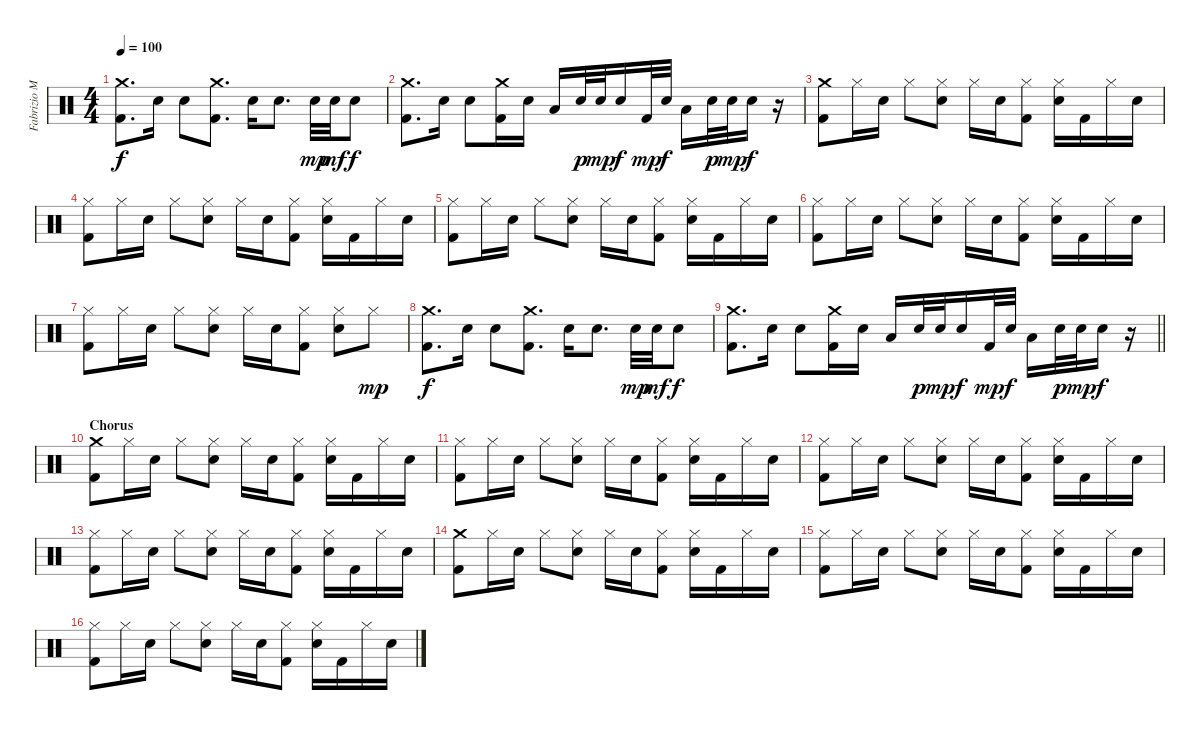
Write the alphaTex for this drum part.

\track ("Fabrizio Moretti" "Fabrizio M") {instrument percussion}
\staff {score}
\articulation defaults
\ts (4 4)
\tempo 100
\clef neutral
\ks c
("Crash medium (hit)" "Kick (hit) 2").8{d dy f} "Snare (hit) 2".16 "Snare (hit) 2".8 ("Crash medium (hit)" "Kick (hit) 2").8{d} "Snare (hit) 2".16 "Snare (hit) 2".8{d} "Snare (hit) 2".32{dy mp} "Snare (hit) 2".32{dy mf} "Snare (hit) 2".8{dy f} |
("Crash medium (hit)" "Kick (hit) 2").8{d} "Snare (hit) 2".16 "Snare (hit) 2".8 ("Crash medium (hit)" "Kick (hit) 2").16 "Snare (hit) 2".16 "Low Tom (hit)".16 "Snare (hit) 2".32{dy p} "Snare (hit) 2".32{dy mp} "Snare (hit) 2".16{dy f} "Kick (hit) 2".32{dy mp} "Snare (hit) 2".32{dy f} "Low Tom (hit)".16 "Snare (hit) 2".32{dy p} "Snare (hit) 2".32{dy mp} "Snare (hit) 2".16{dy f} r.16 |
("Crash medium (hit)" "Kick (hit) 2").8 "Hi-Hat (closed)".16 "Snare (hit) 2".16 "Hi-Hat (closed)".8 ("Hi-Hat (closed)" "Snare (hit) 2").8 "Hi-Hat (closed)".16 "Snare (hit) 2".16 ("Hi-Hat (closed)" "Kick (hit) 2").8 ("Hi-Hat (closed)" "Snare (hit) 2").16 "Kick (hit) 2".16 "Hi-Hat (closed)".16 "Snare (hit) 2".16 |
("Hi-Hat (closed)" "Kick (hit) 2").8 "Hi-Hat (closed)".16 "Snare (hit) 2".16 "Hi-Hat (closed)".8 ("Hi-Hat (closed)" "Snare (hit) 2").8 "Hi-Hat (closed)".16 "Snare (hit) 2".16 ("Hi-Hat (closed)" "Kick (hit) 2").8 ("Hi-Hat (closed)" "Snare (hit) 2").16 "Kick (hit) 2".16 "Hi-Hat (closed)".16 "Snare (hit) 2".16 |
("Hi-Hat (closed)" "Kick (hit) 2").8 "Hi-Hat (closed)".16 "Snare (hit) 2".16 "Hi-Hat (closed)".8 ("Hi-Hat (closed)" "Snare (hit) 2").8 "Hi-Hat (closed)".16 "Snare (hit) 2".16 ("Hi-Hat (closed)" "Kick (hit) 2").8 ("Hi-Hat (closed)" "Snare (hit) 2").16 "Kick (hit) 2".16 "Hi-Hat (closed)".16 "Snare (hit) 2".16 |
("Hi-Hat (closed)" "Kick (hit) 2").8 "Hi-Hat (closed)".16 "Snare (hit) 2".16 "Hi-Hat (closed)".8 ("Hi-Hat (closed)" "Snare (hit) 2").8 "Hi-Hat (closed)".16 "Snare (hit) 2".16 ("Hi-Hat (closed)" "Kick (hit) 2").8 ("Hi-Hat (closed)" "Snare (hit) 2").16 "Kick (hit) 2".16 "Hi-Hat (closed)".16 "Snare (hit) 2".16 |
("Hi-Hat (closed)" "Kick (hit) 2").8 "Hi-Hat (closed)".16 "Snare (hit) 2".16 "Hi-Hat (closed)".8 ("Hi-Hat (closed)" "Snare (hit) 2").8 "Hi-Hat (closed)".16 "Snare (hit) 2".16 ("Hi-Hat (closed)" "Kick (hit) 2").8 ("Hi-Hat (closed)" "Snare (hit) 2").8 "Hi-Hat (closed)".8{dy mp} |
("Crash medium (hit)" "Kick (hit) 2").8{d dy f} "Snare (hit) 2".16 "Snare (hit) 2".8 ("Crash medium (hit)" "Kick (hit) 2").8{d} "Snare (hit) 2".16 "Snare (hit) 2".8{d} "Snare (hit) 2".32{dy mp} "Snare (hit) 2".32{dy mf} "Snare (hit) 2".8{dy f} |
\barLineRight lightlight
("Crash medium (hit)" "Kick (hit) 2").8{d} "Snare (hit) 2".16 "Snare (hit) 2".8 ("Crash medium (hit)" "Kick (hit) 2").16 "Snare (hit) 2".16 "Low Tom (hit)".16 "Snare (hit) 2".32{dy p} "Snare (hit) 2".32{dy mp} "Snare (hit) 2".16{dy f} "Kick (hit) 2".32{dy mp} "Snare (hit) 2".32{dy f} "Low Tom (hit)".16 "Snare (hit) 2".32{dy p} "Snare (hit) 2".32{dy mp} "Snare (hit) 2".16{dy f} r.16 |
\section ("" "Chorus")
("Crash medium (hit)" "Kick (hit) 2").8 "Hi-Hat (closed)".16 "Snare (hit) 2".16 "Hi-Hat (closed)".8 ("Hi-Hat (closed)" "Snare (hit) 2").8 "Hi-Hat (closed)".16 "Snare (hit) 2".16 ("Hi-Hat (closed)" "Kick (hit) 2").8 ("Hi-Hat (closed)" "Snare (hit) 2").16 "Kick (hit) 2".16 "Hi-Hat (closed)".16 "Snare (hit) 2".16 |
("Hi-Hat (closed)" "Kick (hit) 2").8 "Hi-Hat (closed)".16 "Snare (hit) 2".16 "Hi-Hat (closed)".8 ("Hi-Hat (closed)" "Snare (hit) 2").8 "Hi-Hat (closed)".16 "Snare (hit) 2".16 ("Hi-Hat (closed)" "Kick (hit) 2").8 ("Hi-Hat (closed)" "Snare (hit) 2").16 "Kick (hit) 2".16 "Hi-Hat (closed)".16 "Snare (hit) 2".16 |
("Hi-Hat (closed)" "Kick (hit) 2").8 "Hi-Hat (closed)".16 "Snare (hit) 2".16 "Hi-Hat (closed)".8 ("Hi-Hat (closed)" "Snare (hit) 2").8 "Hi-Hat (closed)".16 "Snare (hit) 2".16 ("Hi-Hat (closed)" "Kick (hit) 2").8 ("Hi-Hat (closed)" "Snare (hit) 2").16 "Kick (hit) 2".16 "Hi-Hat (closed)".16 "Snare (hit) 2".16 |
("Hi-Hat (closed)" "Kick (hit) 2").8 "Hi-Hat (closed)".16 "Snare (hit) 2".16 "Hi-Hat (closed)".8 ("Hi-Hat (closed)" "Snare (hit) 2").8 "Hi-Hat (closed)".16 "Snare (hit) 2".16 ("Hi-Hat (closed)" "Kick (hit) 2").8 ("Hi-Hat (closed)" "Snare (hit) 2").16 "Kick (hit) 2".16 "Hi-Hat (closed)".16 "Snare (hit) 2".16 |
("Crash medium (hit)" "Kick (hit) 2").8 "Hi-Hat (closed)".16 "Snare (hit) 2".16 "Hi-Hat (closed)".8 ("Hi-Hat (closed)" "Snare (hit) 2").8 "Hi-Hat (closed)".16 "Snare (hit) 2".16 ("Hi-Hat (closed)" "Kick (hit) 2").8 ("Hi-Hat (closed)" "Snare (hit) 2").16 "Kick (hit) 2".16 "Hi-Hat (closed)".16 "Snare (hit) 2".16 |
("Hi-Hat (closed)" "Kick (hit) 2").8 "Hi-Hat (closed)".16 "Snare (hit) 2".16 "Hi-Hat (closed)".8 ("Hi-Hat (closed)" "Snare (hit) 2").8 "Hi-Hat (closed)".16 "Snare (hit) 2".16 ("Hi-Hat (closed)" "Kick (hit) 2").8 ("Hi-Hat (closed)" "Snare (hit) 2").16 "Kick (hit) 2".16 "Hi-Hat (closed)".16 "Snare (hit) 2".16 |
("Hi-Hat (closed)" "Kick (hit) 2").8 "Hi-Hat (closed)".16 "Snare (hit) 2".16 "Hi-Hat (closed)".8 ("Hi-Hat (closed)" "Snare (hit) 2").8 "Hi-Hat (closed)".16 "Snare (hit) 2".16 ("Hi-Hat (closed)" "Kick (hit) 2").8 ("Hi-Hat (closed)" "Snare (hit) 2").16 "Kick (hit) 2".16 "Hi-Hat (closed)".16 "Snare (hit) 2".16
